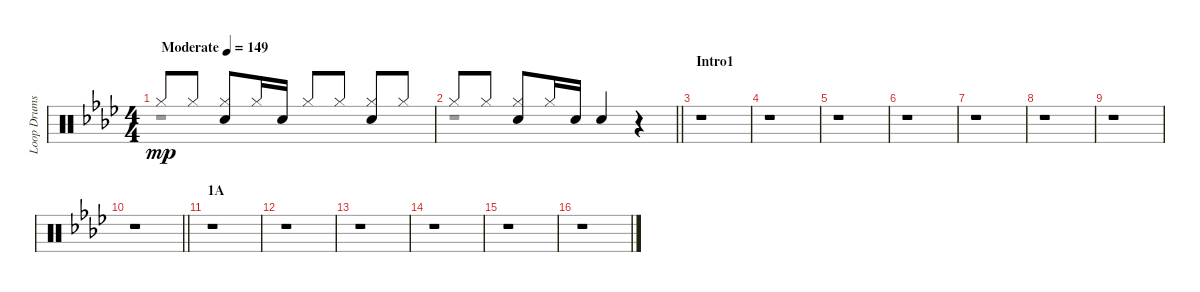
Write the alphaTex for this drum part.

\track ("Loop Drums" "Loop Drums") {instrument percussion}
\staff {score}
\articulation defaults
\voice
\ts (4 4)
\tempo (149 "Moderate")
\clef neutral
\ks ab "Hi-Hat (closed)".8{dy mp} "Hi-Hat (closed)".8
("Hi-Hat (closed)" "Electric Snare (hit)").8 "Hi-Hat (closed)".16 "Electric Snare (hit)".16 "Hi-Hat (closed)".8 "Hi-Hat (closed)".8 ("Hi-Hat (closed)" "Electric Snare (hit)").8 "Hi-Hat (closed)".8 |
\barLineRight lightlight "Hi-Hat (closed)".8 "Hi-Hat (closed)".8
("Hi-Hat (closed)" "Electric Snare (hit)").8 "Hi-Hat (closed)".16 "Electric Snare (hit)".16 "Electric Snare (hit)".4 r.4 |
\section ("" "Intro1")
r.1 |
r.1 |
r.1 |
r.1 |
r.1 |
r.1 |
r.1 |
\barLineRight lightlight
r.1 |
\section ("" "1A")
r.1 |
r.1 |
r.1 |
r.1 |
r.1 |
r.1
\voice
\clef neutral
\ottava regular
\simile none
\ks ab
r.1{dy f} |
\barLineRight lightlight
r.1 |
r.1 |
r.1 |
r.1 |
r.1 |
r.1 |
r.1 |
r.1 |
\barLineRight lightlight
r.1 |
r.1 |
r.1 |
r.1 |
r.1 |
r.1 |
r.1
